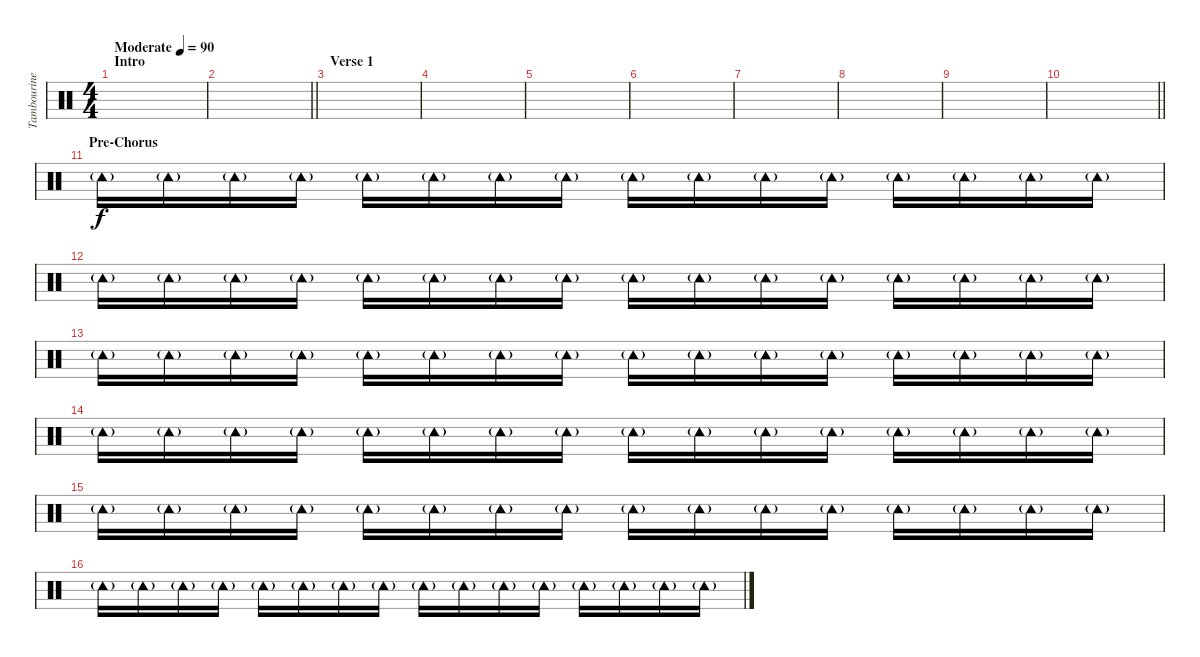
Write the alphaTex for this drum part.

\track ("Tambourine" "Tambourine") {instrument percussion}
\staff {score}
\articulation defaults
\ts (4 4)
\section ("" "Intro")
\tempo (90 "Moderate")
\clef neutral
\ks c
|
\barLineRight lightlight
|
\section ("" "Verse 1")
|
|
|
|
|
|
|
\barLineRight lightlight
|
\section ("" "Pre-Chorus")
"Tambourine (hit)"{g}.16 "Tambourine (hit)"{g}.16 "Tambourine (hit)"{g}.16 "Tambourine (hit)"{g}.16 "Tambourine (hit)"{g}.16 "Tambourine (hit)"{g}.16 "Tambourine (hit)"{g}.16 "Tambourine (hit)"{g}.16 "Tambourine (hit)"{g}.16 "Tambourine (hit)"{g}.16 "Tambourine (hit)"{g}.16 "Tambourine (hit)"{g}.16 "Tambourine (hit)"{g}.16 "Tambourine (hit)"{g}.16 "Tambourine (hit)"{g}.16 "Tambourine (hit)"{g}.16 |
"Tambourine (hit)"{g}.16 "Tambourine (hit)"{g}.16 "Tambourine (hit)"{g}.16 "Tambourine (hit)"{g}.16 "Tambourine (hit)"{g}.16 "Tambourine (hit)"{g}.16 "Tambourine (hit)"{g}.16 "Tambourine (hit)"{g}.16 "Tambourine (hit)"{g}.16 "Tambourine (hit)"{g}.16 "Tambourine (hit)"{g}.16 "Tambourine (hit)"{g}.16 "Tambourine (hit)"{g}.16 "Tambourine (hit)"{g}.16 "Tambourine (hit)"{g}.16 "Tambourine (hit)"{g}.16 |
"Tambourine (hit)"{g}.16 "Tambourine (hit)"{g}.16 "Tambourine (hit)"{g}.16 "Tambourine (hit)"{g}.16 "Tambourine (hit)"{g}.16 "Tambourine (hit)"{g}.16 "Tambourine (hit)"{g}.16 "Tambourine (hit)"{g}.16 "Tambourine (hit)"{g}.16 "Tambourine (hit)"{g}.16 "Tambourine (hit)"{g}.16 "Tambourine (hit)"{g}.16 "Tambourine (hit)"{g}.16 "Tambourine (hit)"{g}.16 "Tambourine (hit)"{g}.16 "Tambourine (hit)"{g}.16 |
"Tambourine (hit)"{g}.16 "Tambourine (hit)"{g}.16 "Tambourine (hit)"{g}.16 "Tambourine (hit)"{g}.16 "Tambourine (hit)"{g}.16 "Tambourine (hit)"{g}.16 "Tambourine (hit)"{g}.16 "Tambourine (hit)"{g}.16 "Tambourine (hit)"{g}.16 "Tambourine (hit)"{g}.16 "Tambourine (hit)"{g}.16 "Tambourine (hit)"{g}.16 "Tambourine (hit)"{g}.16 "Tambourine (hit)"{g}.16 "Tambourine (hit)"{g}.16 "Tambourine (hit)"{g}.16 |
"Tambourine (hit)"{g}.16 "Tambourine (hit)"{g}.16 "Tambourine (hit)"{g}.16 "Tambourine (hit)"{g}.16 "Tambourine (hit)"{g}.16 "Tambourine (hit)"{g}.16 "Tambourine (hit)"{g}.16 "Tambourine (hit)"{g}.16 "Tambourine (hit)"{g}.16 "Tambourine (hit)"{g}.16 "Tambourine (hit)"{g}.16 "Tambourine (hit)"{g}.16 "Tambourine (hit)"{g}.16 "Tambourine (hit)"{g}.16 "Tambourine (hit)"{g}.16 "Tambourine (hit)"{g}.16 |
"Tambourine (hit)"{g}.16 "Tambourine (hit)"{g}.16 "Tambourine (hit)"{g}.16 "Tambourine (hit)"{g}.16 "Tambourine (hit)"{g}.16 "Tambourine (hit)"{g}.16 "Tambourine (hit)"{g}.16 "Tambourine (hit)"{g}.16 "Tambourine (hit)"{g}.16 "Tambourine (hit)"{g}.16 "Tambourine (hit)"{g}.16 "Tambourine (hit)"{g}.16 "Tambourine (hit)"{g}.16 "Tambourine (hit)"{g}.16 "Tambourine (hit)"{g}.16 "Tambourine (hit)"{g}.16
